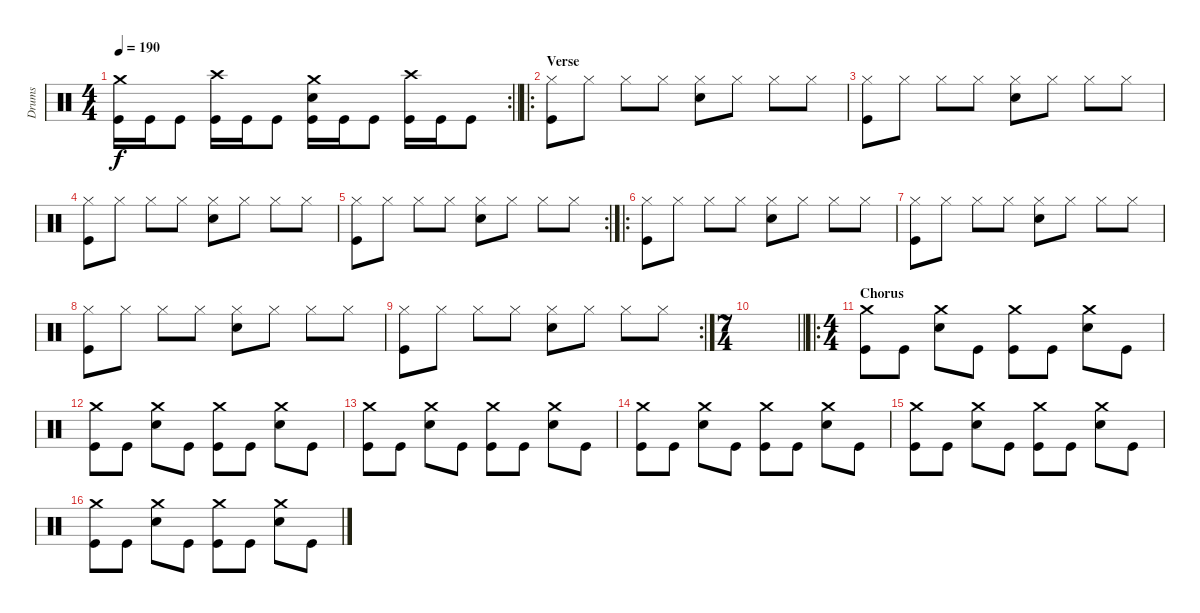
\track ("Drums" "Drums") {instrument percussion}
\staff {score}
\articulation defaults
\rc 2
\ts (4 4)
\tempo 190
\clef neutral
\barLineRight lightlight
\ks c
("Crash medium (hit)" "Kick (hit)").16{dy f} "Kick (hit)".16 "Kick (hit)".8 ("Crash high (hit)" "Kick (hit)").16 "Kick (hit)".16 "Kick (hit)".8 ("Crash medium (hit)" "Snare (hit) 2" "Kick (hit)").16 "Kick (hit)".16 "Kick (hit)".8 ("Crash high (hit)" "Kick (hit)").16 "Kick (hit)".16 "Kick (hit)".8 |
\ro
\section ("" "Verse")
("Hi-Hat (closed)" "Kick (hit)").8 "Hi-Hat (closed)".8 "Hi-Hat (closed)".8 "Hi-Hat (closed)".8 ("Hi-Hat (closed)" "Snare (hit) 2").8 "Hi-Hat (closed)".8 "Hi-Hat (closed)".8 "Hi-Hat (closed)".8 |
("Hi-Hat (closed)" "Kick (hit)").8 "Hi-Hat (closed)".8 "Hi-Hat (closed)".8 "Hi-Hat (closed)".8 ("Hi-Hat (closed)" "Snare (hit) 2").8 "Hi-Hat (closed)".8 "Hi-Hat (closed)".8 "Hi-Hat (closed)".8 |
("Hi-Hat (closed)" "Kick (hit)").8 "Hi-Hat (closed)".8 "Hi-Hat (closed)".8 "Hi-Hat (closed)".8 ("Hi-Hat (closed)" "Snare (hit) 2").8 "Hi-Hat (closed)".8 "Hi-Hat (closed)".8 "Hi-Hat (closed)".8 |
\rc 2
("Hi-Hat (closed)" "Kick (hit)").8 "Hi-Hat (closed)".8 "Hi-Hat (closed)".8 "Hi-Hat (closed)".8 ("Hi-Hat (closed)" "Snare (hit) 2").8 "Hi-Hat (closed)".8 "Hi-Hat (closed)".8 "Hi-Hat (closed)".8 |
\ro
("Hi-Hat (closed)" "Kick (hit)").8 "Hi-Hat (closed)".8 "Hi-Hat (closed)".8 "Hi-Hat (closed)".8 ("Hi-Hat (closed)" "Snare (hit) 2").8 "Hi-Hat (closed)".8 "Hi-Hat (closed)".8 "Hi-Hat (closed)".8 |
("Hi-Hat (closed)" "Kick (hit)").8 "Hi-Hat (closed)".8 "Hi-Hat (closed)".8 "Hi-Hat (closed)".8 ("Hi-Hat (closed)" "Snare (hit) 2").8 "Hi-Hat (closed)".8 "Hi-Hat (closed)".8 "Hi-Hat (closed)".8 |
("Hi-Hat (closed)" "Kick (hit)").8 "Hi-Hat (closed)".8 "Hi-Hat (closed)".8 "Hi-Hat (closed)".8 ("Hi-Hat (closed)" "Snare (hit) 2").8 "Hi-Hat (closed)".8 "Hi-Hat (closed)".8 "Hi-Hat (closed)".8 |
\rc 2
("Hi-Hat (closed)" "Kick (hit)").8 "Hi-Hat (closed)".8 "Hi-Hat (closed)".8 "Hi-Hat (closed)".8 ("Hi-Hat (closed)" "Snare (hit) 2").8 "Hi-Hat (closed)".8 "Hi-Hat (closed)".8 "Hi-Hat (closed)".8 |
\ts (7 4)
\barLineRight lightlight
|
\ro
\ts (4 4)
\section ("" "Chorus")
("Crash medium (hit)" "Kick (hit)").8 "Kick (hit)".8 ("Crash medium (hit)" "Snare (hit) 2").8 "Kick (hit)".8 ("Crash medium (hit)" "Kick (hit)").8 "Kick (hit)".8 ("Crash medium (hit)" "Snare (hit) 2").8 "Kick (hit)".8 |
("Crash medium (hit)" "Kick (hit)").8 "Kick (hit)".8 ("Crash medium (hit)" "Snare (hit) 2").8 "Kick (hit)".8 ("Crash medium (hit)" "Kick (hit)").8 "Kick (hit)".8 ("Crash medium (hit)" "Snare (hit) 2").8 "Kick (hit)".8 |
("Crash medium (hit)" "Kick (hit)").8 "Kick (hit)".8 ("Crash medium (hit)" "Snare (hit) 2").8 "Kick (hit)".8 ("Crash medium (hit)" "Kick (hit)").8 "Kick (hit)".8 ("Crash medium (hit)" "Snare (hit) 2").8 "Kick (hit)".8 |
("Crash medium (hit)" "Kick (hit)").8 "Kick (hit)".8 ("Crash medium (hit)" "Snare (hit) 2").8 "Kick (hit)".8 ("Crash medium (hit)" "Kick (hit)").8 "Kick (hit)".8 ("Crash medium (hit)" "Snare (hit) 2").8 "Kick (hit)".8 |
("Crash medium (hit)" "Kick (hit)").8 "Kick (hit)".8 ("Crash medium (hit)" "Snare (hit) 2").8 "Kick (hit)".8 ("Crash medium (hit)" "Kick (hit)").8 "Kick (hit)".8 ("Crash medium (hit)" "Snare (hit) 2").8 "Kick (hit)".8 |
("Crash medium (hit)" "Kick (hit)").8 "Kick (hit)".8 ("Crash medium (hit)" "Snare (hit) 2").8 "Kick (hit)".8 ("Crash medium (hit)" "Kick (hit)").8 "Kick (hit)".8 ("Crash medium (hit)" "Snare (hit) 2").8 "Kick (hit)".8
